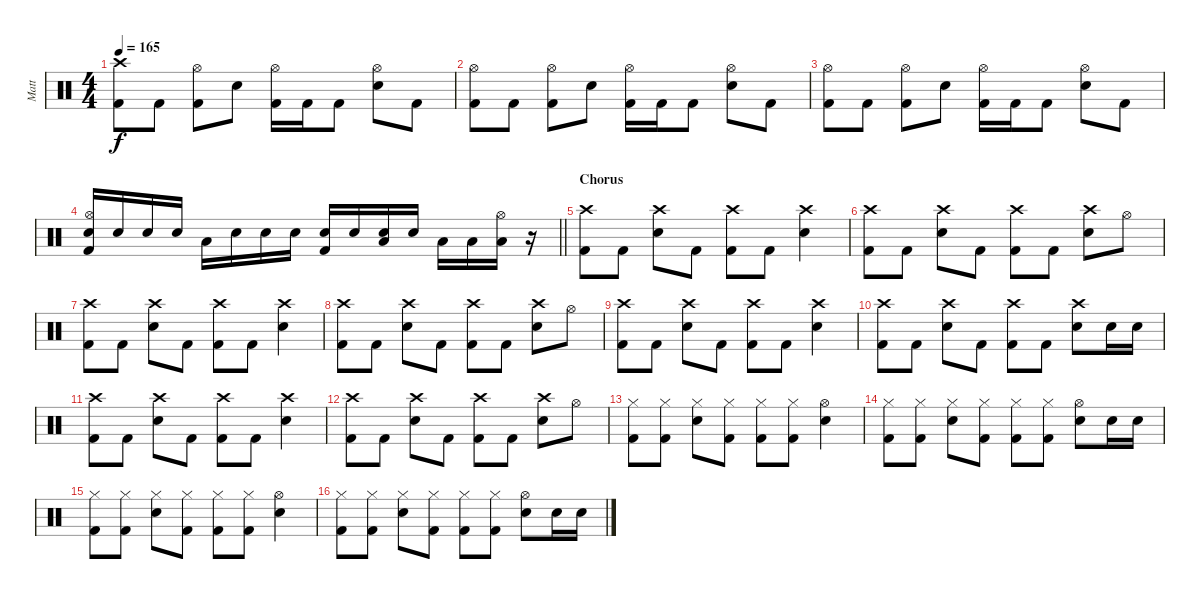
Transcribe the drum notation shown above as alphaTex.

\track ("Matt" "Matt") {instrument percussion}
\staff {score}
\articulation defaults
\ts (4 4)
\tempo 165
\clef neutral
\ks c
("Crash high (hit)" "Kick (hit) 2").8{dy f} "Kick (hit) 2".8 ("Hi-Hat (open)" "Kick (hit) 2").8 "Electric Snare (hit)".8 ("Hi-Hat (open)" "Kick (hit) 2").16 "Kick (hit) 2".16 "Kick (hit) 2".8 ("Hi-Hat (open)" "Electric Snare (hit)").8 "Kick (hit) 2".8 |
("Hi-Hat (open)" "Kick (hit) 2").8 "Kick (hit) 2".8 ("Hi-Hat (open)" "Kick (hit) 2").8 "Electric Snare (hit)".8 ("Hi-Hat (open)" "Kick (hit) 2").16 "Kick (hit) 2".16 "Kick (hit) 2".8 ("Hi-Hat (open)" "Electric Snare (hit)").8 "Kick (hit) 2".8 |
("Hi-Hat (open)" "Kick (hit) 2").8 "Kick (hit) 2".8 ("Hi-Hat (open)" "Kick (hit) 2").8 "Electric Snare (hit)".8 ("Hi-Hat (open)" "Kick (hit) 2").16 "Kick (hit) 2".16 "Kick (hit) 2".8 ("Hi-Hat (open)" "Electric Snare (hit)").8 "Kick (hit) 2".8 |
\barLineRight lightlight
("Hi-Hat (open)" "Electric Snare (hit)" "Kick (hit) 2").16 "Electric Snare (hit)".16 "Electric Snare (hit)".16 "Electric Snare (hit)".16 "Low Tom (hit)".16 "Electric Snare (hit)".16 "Electric Snare (hit)".16 "Electric Snare (hit)".16 ("Electric Snare (hit)" "Kick (hit) 2").16 "Electric Snare (hit)".16 ("Low Tom (hit)" "Electric Snare (hit)").16 "Electric Snare (hit)".16 "Low Tom (hit)".16 "Low Tom (hit)".16 ("Hi-Hat (open)" "Low Tom (hit)").16 r.16 |
\section ("" "Chorus")
("Crash high (hit)" "Kick (hit) 2").8 "Kick (hit) 2".8 ("Crash high (hit)" "Electric Snare (hit)").8 "Kick (hit) 2".8 ("Crash high (hit)" "Kick (hit) 2").8 "Kick (hit) 2".8 ("Crash high (hit)" "Electric Snare (hit)").4 |
("Crash high (hit)" "Kick (hit) 2").8 "Kick (hit) 2".8 ("Crash high (hit)" "Electric Snare (hit)").8 "Kick (hit) 2".8 ("Crash high (hit)" "Kick (hit) 2").8 "Kick (hit) 2".8 ("Crash high (hit)" "Electric Snare (hit)").8 "Hi-Hat (open)".8 |
("Crash high (hit)" "Kick (hit) 2").8 "Kick (hit) 2".8 ("Crash high (hit)" "Electric Snare (hit)").8 "Kick (hit) 2".8 ("Crash high (hit)" "Kick (hit) 2").8 "Kick (hit) 2".8 ("Crash high (hit)" "Electric Snare (hit)").4 |
("Crash high (hit)" "Kick (hit) 2").8 "Kick (hit) 2".8 ("Crash high (hit)" "Electric Snare (hit)").8 "Kick (hit) 2".8 ("Crash high (hit)" "Kick (hit) 2").8 "Kick (hit) 2".8 ("Crash high (hit)" "Electric Snare (hit)").8 "Hi-Hat (open)".8 |
("Crash high (hit)" "Kick (hit) 2").8 "Kick (hit) 2".8 ("Crash high (hit)" "Electric Snare (hit)").8 "Kick (hit) 2".8 ("Crash high (hit)" "Kick (hit) 2").8 "Kick (hit) 2".8 ("Crash high (hit)" "Electric Snare (hit)").4 |
("Crash high (hit)" "Kick (hit) 2").8 "Kick (hit) 2".8 ("Crash high (hit)" "Electric Snare (hit)").8 "Kick (hit) 2".8 ("Crash high (hit)" "Kick (hit) 2").8 "Kick (hit) 2".8 ("Crash high (hit)" "Electric Snare (hit)").8 "Electric Snare (hit)".16 "Electric Snare (hit)".16 |
("Crash high (hit)" "Kick (hit) 2").8 "Kick (hit) 2".8 ("Crash high (hit)" "Electric Snare (hit)").8 "Kick (hit) 2".8 ("Crash high (hit)" "Kick (hit) 2").8 "Kick (hit) 2".8 ("Crash high (hit)" "Electric Snare (hit)").4 |
("Crash high (hit)" "Kick (hit) 2").8 "Kick (hit) 2".8 ("Crash high (hit)" "Electric Snare (hit)").8 "Kick (hit) 2".8 ("Crash high (hit)" "Kick (hit) 2").8 "Kick (hit) 2".8 ("Crash high (hit)" "Electric Snare (hit)").8 "Hi-Hat (open)".8 |
("Hi-Hat (closed)" "Kick (hit) 2").8 ("Hi-Hat (closed)" "Kick (hit) 2").8 ("Hi-Hat (closed)" "Electric Snare (hit)").8 ("Hi-Hat (closed)" "Kick (hit) 2").8 ("Hi-Hat (closed)" "Kick (hit) 2").8 ("Hi-Hat (closed)" "Kick (hit) 2").8 ("Hi-Hat (open)" "Electric Snare (hit)").4 |
("Hi-Hat (closed)" "Kick (hit) 2").8 ("Hi-Hat (closed)" "Kick (hit) 2").8 ("Hi-Hat (closed)" "Electric Snare (hit)").8 ("Hi-Hat (closed)" "Kick (hit) 2").8 ("Hi-Hat (closed)" "Kick (hit) 2").8 ("Hi-Hat (closed)" "Kick (hit) 2").8 ("Hi-Hat (open)" "Electric Snare (hit)").8 "Electric Snare (hit)".16 "Electric Snare (hit)".16 |
("Hi-Hat (closed)" "Kick (hit) 2").8 ("Hi-Hat (closed)" "Kick (hit) 2").8 ("Hi-Hat (closed)" "Electric Snare (hit)").8 ("Hi-Hat (closed)" "Kick (hit) 2").8 ("Hi-Hat (closed)" "Kick (hit) 2").8 ("Hi-Hat (closed)" "Kick (hit) 2").8 ("Hi-Hat (open)" "Electric Snare (hit)").4 |
("Hi-Hat (closed)" "Kick (hit) 2").8 ("Hi-Hat (closed)" "Kick (hit) 2").8 ("Hi-Hat (closed)" "Electric Snare (hit)").8 ("Hi-Hat (closed)" "Kick (hit) 2").8 ("Hi-Hat (closed)" "Kick (hit) 2").8 ("Hi-Hat (closed)" "Kick (hit) 2").8 ("Hi-Hat (open)" "Electric Snare (hit)").8 "Electric Snare (hit)".16 "Electric Snare (hit)".16
